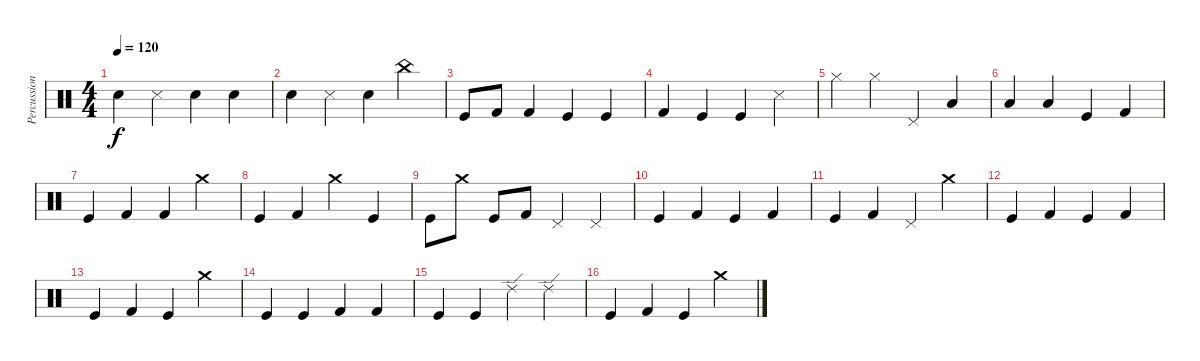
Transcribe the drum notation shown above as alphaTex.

\track ("Percussions" "Percussion") {instrument percussion}
\staff {score}
\articulation defaults
\ts (4 4)
\tempo 120
\clef neutral
\ks c "Snare (hit) 2".4{dy f} "Snare (side stick) 3".4 "Snare (hit) 2".4 "Electric Snare (hit)".4
|
"Snare (hit) 2".4 "Snare (side stick) 3".4 "Snare (hit) 2".4 "China (hit)".4 |
"Kick (hit)".8 "Kick (hit) 2".8 "Kick (hit) 2".4 "Kick (hit)".4 "Kick (hit)".4 |
"Kick (hit) 2".4 "Kick (hit)".4 "Kick (hit)".4 "Snare (side stick) 3".4 |
"Hi-Hat (closed)".4 "Hi-Hat (closed)".4 "Pedal Hi-Hat (hit)".4 "Low Tom (hit)".4 |
"Low Tom (hit)".4 "Low Tom (hit)".4 "Kick (hit)".4 "Kick (hit) 2".4 |
"Kick (hit)".4 "Kick (hit) 2".4 "Kick (hit) 2".4 "Crash medium (hit)".4 |
"Kick (hit)".4 "Kick (hit) 2".4 "Crash medium (hit)".4 "Kick (hit)".4 |
"Kick (hit)".8 "Crash medium (hit)".8 "Kick (hit)".8 "Kick (hit) 2".8 "Pedal Hi-Hat (hit)".4 "Pedal Hi-Hat (hit)".4 |
"Kick (hit)".4 "Kick (hit) 2".4 "Kick (hit)".4 "Kick (hit) 2".4 |
"Kick (hit)".4 "Kick (hit) 2".4 "Pedal Hi-Hat (hit)".4 "Crash medium (hit)".4 |
"Kick (hit)".4 "Kick (hit) 2".4 "Kick (hit)".4 "Kick (hit) 2".4 |
"Kick (hit)".4 "Kick (hit) 2".4 "Kick (hit)".4 "Crash medium (hit)".4 |
"Kick (hit)".4 "Kick (hit)".4 "Kick (hit) 2".4 "Kick (hit) 2".4 |
"Kick (hit)".4 "Kick (hit)".4 "Ride (edge) 2".4 "Ride (edge) 2".4 |
"Kick (hit)".4 "Kick (hit) 2".4 "Kick (hit)".4 "Crash medium (hit)".4
